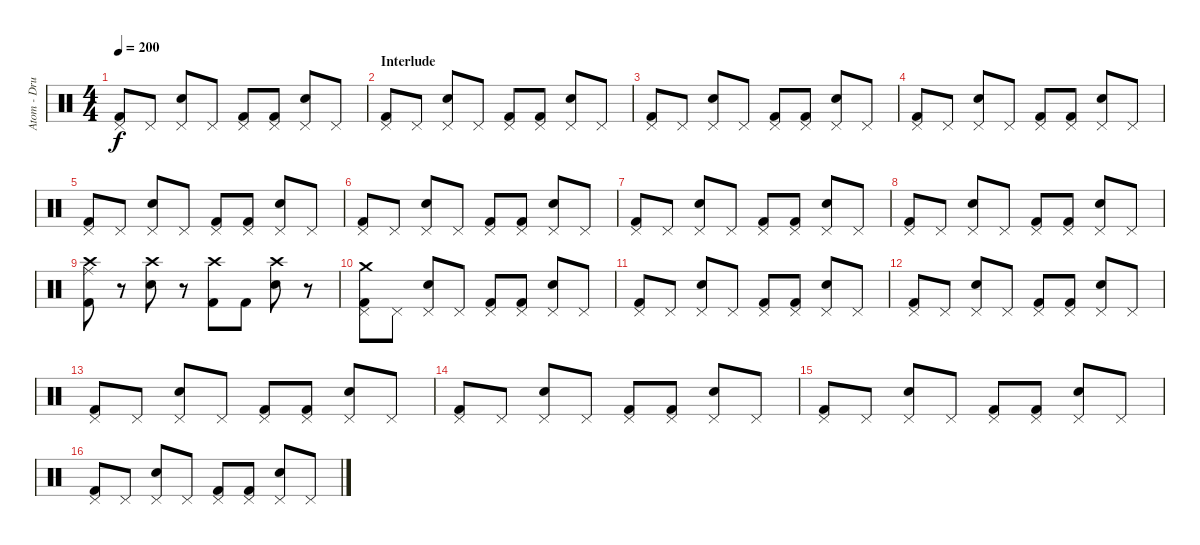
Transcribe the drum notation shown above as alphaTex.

\track ("Atom - Drums" "Atom - Dru") {instrument percussion}
\staff {score}
\articulation defaults
\ts (4 4)
\tempo 200
\clef neutral
\ks c
("Pedal Hi-Hat (hit)" "Kick (hit) 2").8{dy f} "Pedal Hi-Hat (hit)".8 ("Pedal Hi-Hat (hit)" "Electric Snare (hit)").8 "Pedal Hi-Hat (hit)".8 ("Pedal Hi-Hat (hit)" "Kick (hit) 2").8 ("Pedal Hi-Hat (hit)" "Kick (hit) 2").8 ("Pedal Hi-Hat (hit)" "Electric Snare (hit)").8 "Pedal Hi-Hat (hit)".8 |
\section ("" "Interlude")
("Pedal Hi-Hat (hit)" "Kick (hit) 2").8 "Pedal Hi-Hat (hit)".8 ("Pedal Hi-Hat (hit)" "Electric Snare (hit)").8 "Pedal Hi-Hat (hit)".8 ("Pedal Hi-Hat (hit)" "Kick (hit) 2").8 ("Pedal Hi-Hat (hit)" "Kick (hit) 2").8 ("Pedal Hi-Hat (hit)" "Electric Snare (hit)").8 "Pedal Hi-Hat (hit)".8 |
("Pedal Hi-Hat (hit)" "Kick (hit) 2").8 "Pedal Hi-Hat (hit)".8 ("Pedal Hi-Hat (hit)" "Electric Snare (hit)").8 "Pedal Hi-Hat (hit)".8 ("Pedal Hi-Hat (hit)" "Kick (hit) 2").8 ("Pedal Hi-Hat (hit)" "Kick (hit) 2").8 ("Pedal Hi-Hat (hit)" "Electric Snare (hit)").8 "Pedal Hi-Hat (hit)".8 |
("Pedal Hi-Hat (hit)" "Kick (hit) 2").8 "Pedal Hi-Hat (hit)".8 ("Pedal Hi-Hat (hit)" "Electric Snare (hit)").8 "Pedal Hi-Hat (hit)".8 ("Pedal Hi-Hat (hit)" "Kick (hit) 2").8 ("Pedal Hi-Hat (hit)" "Kick (hit) 2").8 ("Pedal Hi-Hat (hit)" "Electric Snare (hit)").8 "Pedal Hi-Hat (hit)".8 |
("Pedal Hi-Hat (hit)" "Kick (hit) 2").8 "Pedal Hi-Hat (hit)".8 ("Pedal Hi-Hat (hit)" "Electric Snare (hit)").8 "Pedal Hi-Hat (hit)".8 ("Pedal Hi-Hat (hit)" "Kick (hit) 2").8 ("Pedal Hi-Hat (hit)" "Kick (hit) 2").8 ("Pedal Hi-Hat (hit)" "Electric Snare (hit)").8 "Pedal Hi-Hat (hit)".8 |
("Pedal Hi-Hat (hit)" "Kick (hit) 2").8 "Pedal Hi-Hat (hit)".8 ("Pedal Hi-Hat (hit)" "Electric Snare (hit)").8 "Pedal Hi-Hat (hit)".8 ("Pedal Hi-Hat (hit)" "Kick (hit) 2").8 ("Pedal Hi-Hat (hit)" "Kick (hit) 2").8 ("Pedal Hi-Hat (hit)" "Electric Snare (hit)").8 "Pedal Hi-Hat (hit)".8 |
("Pedal Hi-Hat (hit)" "Kick (hit) 2").8 "Pedal Hi-Hat (hit)".8 ("Pedal Hi-Hat (hit)" "Electric Snare (hit)").8 "Pedal Hi-Hat (hit)".8 ("Pedal Hi-Hat (hit)" "Kick (hit) 2").8 ("Pedal Hi-Hat (hit)" "Kick (hit) 2").8 ("Pedal Hi-Hat (hit)" "Electric Snare (hit)").8 "Pedal Hi-Hat (hit)".8 |
("Pedal Hi-Hat (hit)" "Kick (hit) 2").8 "Pedal Hi-Hat (hit)".8 ("Pedal Hi-Hat (hit)" "Electric Snare (hit)").8 "Pedal Hi-Hat (hit)".8 ("Pedal Hi-Hat (hit)" "Kick (hit) 2").8 ("Pedal Hi-Hat (hit)" "Kick (hit) 2").8 ("Pedal Hi-Hat (hit)" "Electric Snare (hit)").8 "Pedal Hi-Hat (hit)".8 |
("Crash high (hit)" "Ride (middle)" "Kick (hit) 2").8 r.8 ("Crash high (hit)" "Electric Snare (hit)").8 r.8 ("Crash high (hit)" "Kick (hit) 2").8 "Kick (hit) 2".8 ("Crash high (hit)" "Electric Snare (hit)").8 r.8 |
("Crash medium (hit)" "Pedal Hi-Hat (hit)" "Kick (hit) 2").8 "Pedal Hi-Hat (hit)".8 ("Pedal Hi-Hat (hit)" "Electric Snare (hit)").8 "Pedal Hi-Hat (hit)".8 ("Pedal Hi-Hat (hit)" "Kick (hit) 2").8 ("Pedal Hi-Hat (hit)" "Kick (hit) 2").8 ("Pedal Hi-Hat (hit)" "Electric Snare (hit)").8 "Pedal Hi-Hat (hit)".8 |
("Pedal Hi-Hat (hit)" "Kick (hit) 2").8 "Pedal Hi-Hat (hit)".8 ("Pedal Hi-Hat (hit)" "Electric Snare (hit)").8 "Pedal Hi-Hat (hit)".8 ("Pedal Hi-Hat (hit)" "Kick (hit) 2").8 ("Pedal Hi-Hat (hit)" "Kick (hit) 2").8 ("Pedal Hi-Hat (hit)" "Electric Snare (hit)").8 "Pedal Hi-Hat (hit)".8 |
("Pedal Hi-Hat (hit)" "Kick (hit) 2").8 "Pedal Hi-Hat (hit)".8 ("Pedal Hi-Hat (hit)" "Electric Snare (hit)").8 "Pedal Hi-Hat (hit)".8 ("Pedal Hi-Hat (hit)" "Kick (hit) 2").8 ("Pedal Hi-Hat (hit)" "Kick (hit) 2").8 ("Pedal Hi-Hat (hit)" "Electric Snare (hit)").8 "Pedal Hi-Hat (hit)".8 |
("Pedal Hi-Hat (hit)" "Kick (hit) 2").8 "Pedal Hi-Hat (hit)".8 ("Pedal Hi-Hat (hit)" "Electric Snare (hit)").8 "Pedal Hi-Hat (hit)".8 ("Pedal Hi-Hat (hit)" "Kick (hit) 2").8 ("Pedal Hi-Hat (hit)" "Kick (hit) 2").8 ("Pedal Hi-Hat (hit)" "Electric Snare (hit)").8 "Pedal Hi-Hat (hit)".8 |
("Pedal Hi-Hat (hit)" "Kick (hit) 2").8 "Pedal Hi-Hat (hit)".8 ("Pedal Hi-Hat (hit)" "Electric Snare (hit)").8 "Pedal Hi-Hat (hit)".8 ("Pedal Hi-Hat (hit)" "Kick (hit) 2").8 ("Pedal Hi-Hat (hit)" "Kick (hit) 2").8 ("Pedal Hi-Hat (hit)" "Electric Snare (hit)").8 "Pedal Hi-Hat (hit)".8 |
("Pedal Hi-Hat (hit)" "Kick (hit) 2").8 "Pedal Hi-Hat (hit)".8 ("Pedal Hi-Hat (hit)" "Electric Snare (hit)").8 "Pedal Hi-Hat (hit)".8 ("Pedal Hi-Hat (hit)" "Kick (hit) 2").8 ("Pedal Hi-Hat (hit)" "Kick (hit) 2").8 ("Pedal Hi-Hat (hit)" "Electric Snare (hit)").8 "Pedal Hi-Hat (hit)".8 |
("Pedal Hi-Hat (hit)" "Kick (hit) 2").8 "Pedal Hi-Hat (hit)".8 ("Pedal Hi-Hat (hit)" "Electric Snare (hit)").8 "Pedal Hi-Hat (hit)".8 ("Pedal Hi-Hat (hit)" "Kick (hit) 2").8 ("Pedal Hi-Hat (hit)" "Kick (hit) 2").8 ("Pedal Hi-Hat (hit)" "Electric Snare (hit)").8 "Pedal Hi-Hat (hit)".8
